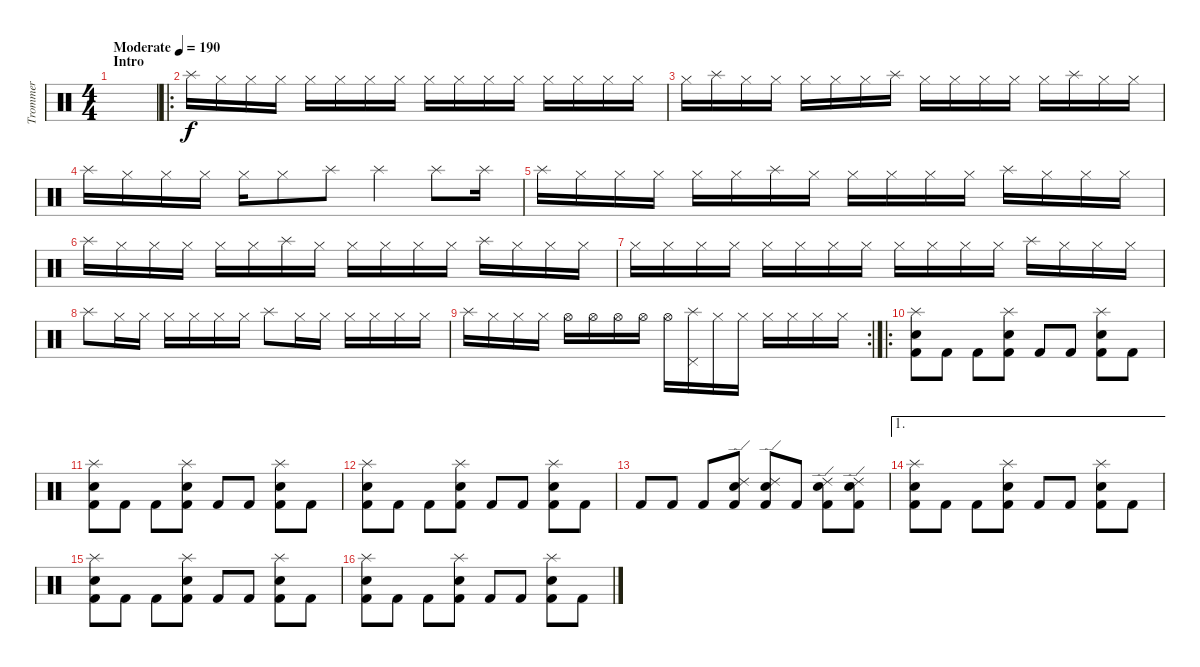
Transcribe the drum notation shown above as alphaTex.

\track ("Trommer" "Trommer") {instrument percussion}
\staff {score}
\articulation defaults
\ts (4 4)
\section ("" "Intro")
\tempo (190 "Moderate")
\clef neutral
\ks c
|
\ro "Splash (hit)".16 "Hi-Hat (closed)".16 "Hi-Hat (closed)".16 "Hi-Hat (closed)".16 "Hi-Hat (closed)".16 "Hi-Hat (closed)".16 "Hi-Hat (closed)".16 "Hi-Hat (closed)".16 "Hi-Hat (closed)".16 "Hi-Hat (closed)".16 "Hi-Hat (closed)".16 "Hi-Hat (closed)".16 "Hi-Hat (closed)".16 "Hi-Hat (closed)".16 "Hi-Hat (closed)".16 "Hi-Hat (closed)".16
|
"Hi-Hat (closed)".16 "Splash (hit)".16 "Hi-Hat (closed)".16 "Hi-Hat (closed)".16 "Hi-Hat (closed)".16 "Hi-Hat (closed)".16 "Hi-Hat (closed)".16 "Splash (hit)".16 "Hi-Hat (closed)".16 "Hi-Hat (closed)".16 "Hi-Hat (closed)".16 "Hi-Hat (closed)".16 "Hi-Hat (closed)".16 "Splash (hit)".16 "Hi-Hat (closed)".16 "Hi-Hat (closed)".16 |
"Splash (hit)".16 "Hi-Hat (closed)".16 "Hi-Hat (closed)".16 "Hi-Hat (closed)".16 "Hi-Hat (closed)".16 "Hi-Hat (closed)".8 "Splash (hit)".8 "Splash (hit)".4 "Splash (hit)".8 "Splash (hit)".16 |
"Splash (hit)".16 "Hi-Hat (closed)".16 "Hi-Hat (closed)".16 "Hi-Hat (closed)".16 "Hi-Hat (closed)".16 "Hi-Hat (closed)".16 "Splash (hit)".16 "Hi-Hat (closed)".16 "Hi-Hat (closed)".16 "Hi-Hat (closed)".16 "Hi-Hat (closed)".16 "Hi-Hat (closed)".16 "Splash (hit)".16 "Hi-Hat (closed)".16 "Hi-Hat (closed)".16 "Hi-Hat (closed)".16 |
"Splash (hit)".16 "Hi-Hat (closed)".16 "Hi-Hat (closed)".16 "Hi-Hat (closed)".16 "Hi-Hat (closed)".16 "Hi-Hat (closed)".16 "Splash (hit)".16 "Hi-Hat (closed)".16 "Hi-Hat (closed)".16 "Hi-Hat (closed)".16 "Hi-Hat (closed)".16 "Hi-Hat (closed)".16 "Splash (hit)".16 "Hi-Hat (closed)".16 "Hi-Hat (closed)".16 "Hi-Hat (closed)".16 |
"Hi-Hat (closed)".16 "Hi-Hat (closed)".16 "Hi-Hat (closed)".16 "Hi-Hat (closed)".16 "Hi-Hat (closed)".16 "Hi-Hat (closed)".16 "Hi-Hat (closed)".16 "Hi-Hat (closed)".16 "Hi-Hat (closed)".16 "Hi-Hat (closed)".16 "Hi-Hat (closed)".16 "Hi-Hat (closed)".16 "Splash (hit)".16 "Hi-Hat (closed)".16 "Hi-Hat (closed)".16 "Hi-Hat (closed)".16 |
"Splash (hit)".8 "Hi-Hat (closed)".16 "Hi-Hat (closed)".16 "Hi-Hat (closed)".16 "Hi-Hat (closed)".16 "Hi-Hat (closed)".16 "Hi-Hat (closed)".16 "Splash (hit)".8 "Hi-Hat (closed)".16 "Hi-Hat (closed)".16 "Hi-Hat (closed)".16 "Hi-Hat (closed)".16 "Hi-Hat (closed)".16 "Hi-Hat (closed)".16 |
\rc 2 "Splash (hit)".16 "Hi-Hat (closed)".16 "Hi-Hat (closed)".16 "Hi-Hat (closed)".16 "Hi-Hat (open)".16 "Hi-Hat (open)".16 "Hi-Hat (open)".16 "Hi-Hat (open)".16 "Hi-Hat (open)".16
("Splash (hit)" "Pedal Hi-Hat (hit)").16 "Hi-Hat (closed)".16 "Hi-Hat (closed)".16 "Hi-Hat (closed)".16 "Hi-Hat (closed)".16 "Hi-Hat (closed)".16 "Hi-Hat (closed)".16 |
\ro
("Splash (hit)" "Snare (hit) 2" "Kick (hit) 2").8 "Kick (hit) 2".8 "Kick (hit) 2".8 ("Splash (hit)" "Snare (hit) 2" "Kick (hit) 2").8 "Kick (hit) 2".8 "Kick (hit) 2".8 ("Splash (hit)" "Snare (hit) 2" "Kick (hit) 2").8 "Kick (hit) 2".8 |
("Splash (hit)" "Snare (hit) 2" "Kick (hit) 2").8 "Kick (hit) 2".8 "Kick (hit) 2".8 ("Splash (hit)" "Snare (hit) 2" "Kick (hit) 2").8 "Kick (hit) 2".8 "Kick (hit) 2".8 ("Splash (hit)" "Snare (hit) 2" "Kick (hit) 2").8 "Kick (hit) 2".8 |
("Splash (hit)" "Snare (hit) 2" "Kick (hit) 2").8 "Kick (hit) 2".8 "Kick (hit) 2".8 ("Splash (hit)" "Snare (hit) 2" "Kick (hit) 2").8 "Kick (hit) 2".8 "Kick (hit) 2".8 ("Splash (hit)" "Snare (hit) 2" "Kick (hit) 2").8 "Kick (hit) 2".8 |
"Kick (hit) 2".8 "Kick (hit) 2".8 "Kick (hit) 2".8 ("Ride (edge) 2" "Snare (hit) 2" "Kick (hit) 2").8 ("Ride (edge) 2" "Snare (hit) 2" "Kick (hit) 2").8 "Kick (hit) 2".8 ("Ride (edge) 2" "Snare (hit) 2" "Kick (hit) 2").8 ("Ride (edge) 2" "Snare (hit) 2" "Kick (hit) 2").8 |
\ae 1
("Splash (hit)" "Snare (hit) 2" "Kick (hit) 2").8 "Kick (hit) 2".8 "Kick (hit) 2".8 ("Splash (hit)" "Snare (hit) 2" "Kick (hit) 2").8 "Kick (hit) 2".8 "Kick (hit) 2".8 ("Splash (hit)" "Snare (hit) 2" "Kick (hit) 2").8 "Kick (hit) 2".8 |
("Splash (hit)" "Snare (hit) 2" "Kick (hit) 2").8 "Kick (hit) 2".8 "Kick (hit) 2".8 ("Splash (hit)" "Snare (hit) 2" "Kick (hit) 2").8 "Kick (hit) 2".8 "Kick (hit) 2".8 ("Splash (hit)" "Snare (hit) 2" "Kick (hit) 2").8 "Kick (hit) 2".8 |
("Splash (hit)" "Snare (hit) 2" "Kick (hit) 2").8 "Kick (hit) 2".8 "Kick (hit) 2".8 ("Splash (hit)" "Snare (hit) 2" "Kick (hit) 2").8 "Kick (hit) 2".8 "Kick (hit) 2".8 ("Splash (hit)" "Snare (hit) 2" "Kick (hit) 2").8 "Kick (hit) 2".8
